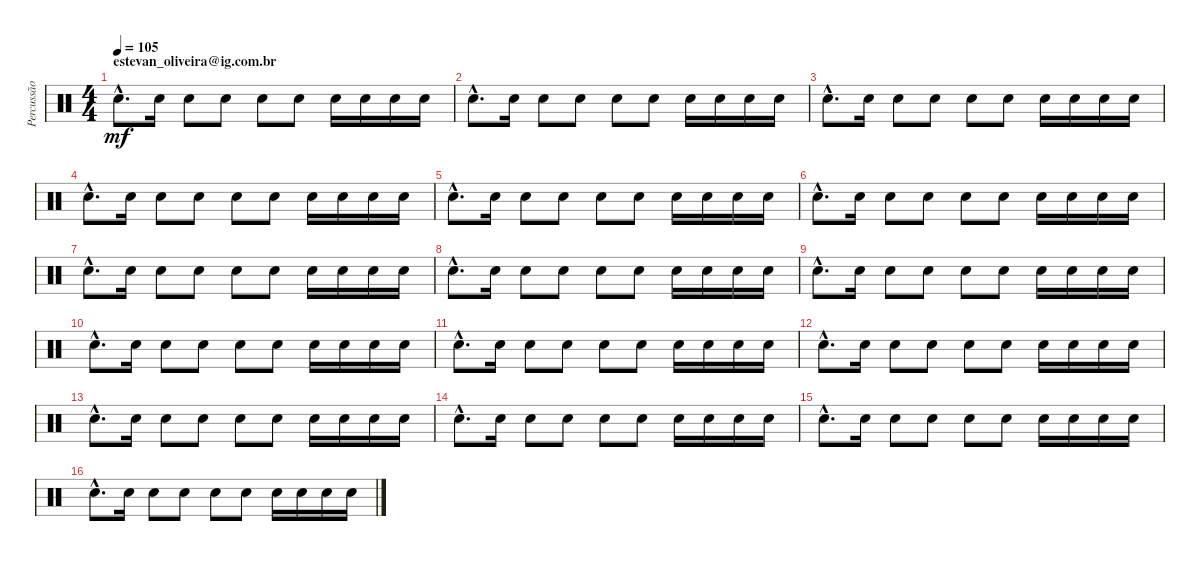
\track ("Percussão" "Percussão") {instrument percussion}
\staff {score}
\articulation defaults
\ts (4 4)
\section ("" "estevan_oliveira@ig.com.br")
\tempo 105
\clef neutral
\ks c "Snare (hit) 2"{hac}.8{d dy mf} "Snare (hit) 2".16 "Snare (hit) 2".8 "Snare (hit) 2".8 "Snare (hit) 2".8 "Snare (hit) 2".8 "Snare (hit) 2".16 "Snare (hit) 2".16 "Snare (hit) 2".16 "Snare (hit) 2".16
|
"Snare (hit) 2"{hac}.8{d} "Snare (hit) 2".16 "Snare (hit) 2".8 "Snare (hit) 2".8 "Snare (hit) 2".8 "Snare (hit) 2".8 "Snare (hit) 2".16 "Snare (hit) 2".16 "Snare (hit) 2".16 "Snare (hit) 2".16 |
"Snare (hit) 2"{hac}.8{d} "Snare (hit) 2".16 "Snare (hit) 2".8 "Snare (hit) 2".8 "Snare (hit) 2".8 "Snare (hit) 2".8 "Snare (hit) 2".16 "Snare (hit) 2".16 "Snare (hit) 2".16 "Snare (hit) 2".16 |
"Snare (hit) 2"{hac}.8{d} "Snare (hit) 2".16 "Snare (hit) 2".8 "Snare (hit) 2".8 "Snare (hit) 2".8 "Snare (hit) 2".8 "Snare (hit) 2".16 "Snare (hit) 2".16 "Snare (hit) 2".16 "Snare (hit) 2".16 |
"Snare (hit) 2"{hac}.8{d} "Snare (hit) 2".16 "Snare (hit) 2".8 "Snare (hit) 2".8 "Snare (hit) 2".8 "Snare (hit) 2".8 "Snare (hit) 2".16 "Snare (hit) 2".16 "Snare (hit) 2".16 "Snare (hit) 2".16 |
"Snare (hit) 2"{hac}.8{d} "Snare (hit) 2".16 "Snare (hit) 2".8 "Snare (hit) 2".8 "Snare (hit) 2".8 "Snare (hit) 2".8 "Snare (hit) 2".16 "Snare (hit) 2".16 "Snare (hit) 2".16 "Snare (hit) 2".16 |
"Snare (hit) 2"{hac}.8{d} "Snare (hit) 2".16 "Snare (hit) 2".8 "Snare (hit) 2".8 "Snare (hit) 2".8 "Snare (hit) 2".8 "Snare (hit) 2".16 "Snare (hit) 2".16 "Snare (hit) 2".16 "Snare (hit) 2".16 |
"Snare (hit) 2"{hac}.8{d} "Snare (hit) 2".16 "Snare (hit) 2".8 "Snare (hit) 2".8 "Snare (hit) 2".8 "Snare (hit) 2".8 "Snare (hit) 2".16 "Snare (hit) 2".16 "Snare (hit) 2".16 "Snare (hit) 2".16 |
"Snare (hit) 2"{hac}.8{d} "Snare (hit) 2".16 "Snare (hit) 2".8 "Snare (hit) 2".8 "Snare (hit) 2".8 "Snare (hit) 2".8 "Snare (hit) 2".16 "Snare (hit) 2".16 "Snare (hit) 2".16 "Snare (hit) 2".16 |
"Snare (hit) 2"{hac}.8{d} "Snare (hit) 2".16 "Snare (hit) 2".8 "Snare (hit) 2".8 "Snare (hit) 2".8 "Snare (hit) 2".8 "Snare (hit) 2".16 "Snare (hit) 2".16 "Snare (hit) 2".16 "Snare (hit) 2".16 |
"Snare (hit) 2"{hac}.8{d} "Snare (hit) 2".16 "Snare (hit) 2".8 "Snare (hit) 2".8 "Snare (hit) 2".8 "Snare (hit) 2".8 "Snare (hit) 2".16 "Snare (hit) 2".16 "Snare (hit) 2".16 "Snare (hit) 2".16 |
"Snare (hit) 2"{hac}.8{d} "Snare (hit) 2".16 "Snare (hit) 2".8 "Snare (hit) 2".8 "Snare (hit) 2".8 "Snare (hit) 2".8 "Snare (hit) 2".16 "Snare (hit) 2".16 "Snare (hit) 2".16 "Snare (hit) 2".16 |
"Snare (hit) 2"{hac}.8{d} "Snare (hit) 2".16 "Snare (hit) 2".8 "Snare (hit) 2".8 "Snare (hit) 2".8 "Snare (hit) 2".8 "Snare (hit) 2".16 "Snare (hit) 2".16 "Snare (hit) 2".16 "Snare (hit) 2".16 |
"Snare (hit) 2"{hac}.8{d} "Snare (hit) 2".16 "Snare (hit) 2".8 "Snare (hit) 2".8 "Snare (hit) 2".8 "Snare (hit) 2".8 "Snare (hit) 2".16 "Snare (hit) 2".16 "Snare (hit) 2".16 "Snare (hit) 2".16 |
"Snare (hit) 2"{hac}.8{d} "Snare (hit) 2".16 "Snare (hit) 2".8 "Snare (hit) 2".8 "Snare (hit) 2".8 "Snare (hit) 2".8 "Snare (hit) 2".16 "Snare (hit) 2".16 "Snare (hit) 2".16 "Snare (hit) 2".16 |
"Snare (hit) 2"{hac}.8{d} "Snare (hit) 2".16 "Snare (hit) 2".8 "Snare (hit) 2".8 "Snare (hit) 2".8 "Snare (hit) 2".8 "Snare (hit) 2".16 "Snare (hit) 2".16 "Snare (hit) 2".16 "Snare (hit) 2".16
